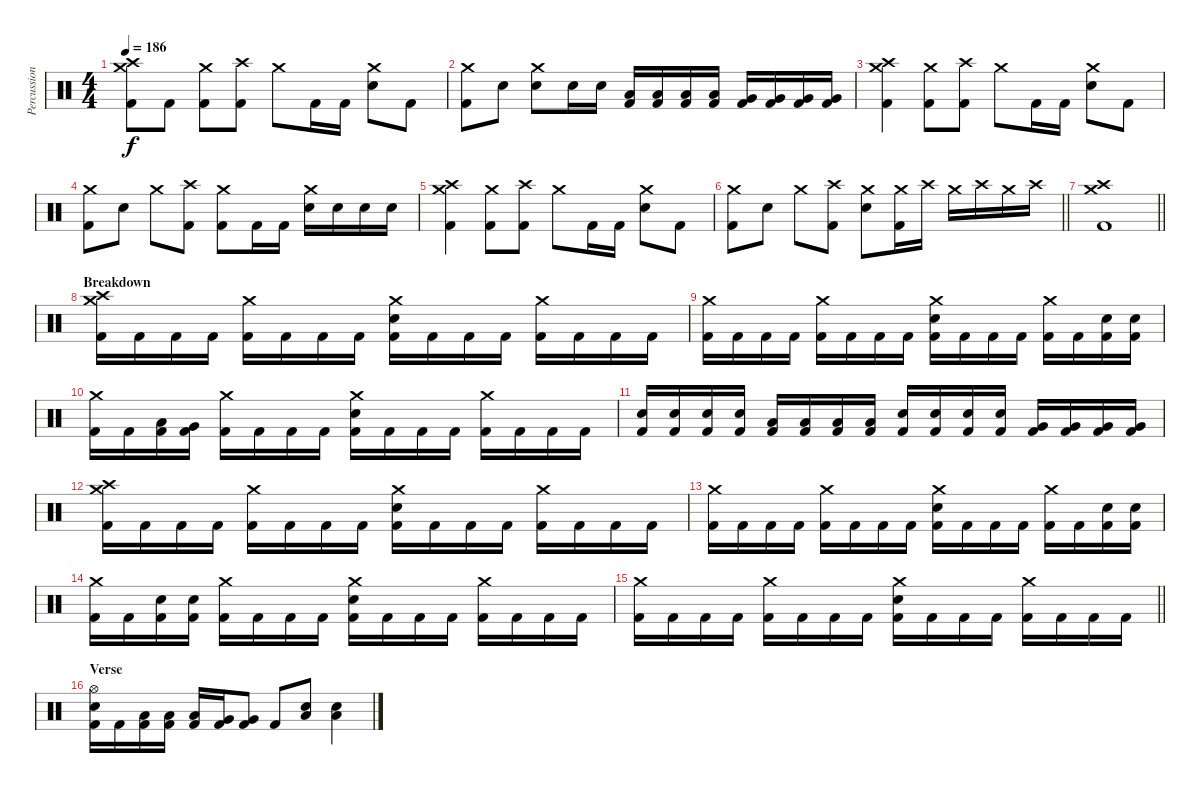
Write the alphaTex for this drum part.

\track ("Percussion" "Percussion") {instrument percussion}
\staff {score}
\articulation defaults
\ts (4 4)
\tempo 186
\clef neutral
\ks c
("Crash medium (hit)" "Crash high (hit)" "Kick (hit) 2").8{dy f} "Kick (hit) 2".8 ("Crash medium (hit)" "Kick (hit) 2").8 ("Crash high (hit)" "Kick (hit) 2").8 "Crash medium (hit)".8 "Kick (hit) 2".16 "Kick (hit) 2".16 ("Crash medium (hit)" "Electric Snare (hit)").8 "Kick (hit) 2".8 |
("Crash medium (hit)" "Kick (hit) 2").8 "Electric Snare (hit)".8 ("Crash medium (hit)" "Electric Snare (hit)").8 "Electric Snare (hit)".16 "Electric Snare (hit)".16 ("Low Tom (hit)" "Kick (hit) 2").16 ("Low Tom (hit)" "Kick (hit) 2").16 ("Low Tom (hit)" "Kick (hit) 2").16 ("Low Tom (hit)" "Kick (hit) 2").16 ("Very Low Tom (hit)" "Kick (hit) 2").16 ("Very Low Tom (hit)" "Kick (hit) 2").16 ("Very Low Tom (hit)" "Kick (hit) 2").16 ("Very Low Tom (hit)" "Kick (hit) 2").16 |
("Crash medium (hit)" "Crash high (hit)" "Kick (hit) 2").4 ("Crash medium (hit)" "Kick (hit) 2").8 ("Crash high (hit)" "Kick (hit) 2").8 "Crash medium (hit)".8 "Kick (hit) 2".16 "Kick (hit) 2".16 ("Crash medium (hit)" "Electric Snare (hit)").8 "Kick (hit) 2".8 |
("Crash medium (hit)" "Kick (hit) 2").8 "Electric Snare (hit)".8 "Crash medium (hit)".8 ("Crash high (hit)" "Kick (hit) 2").8 ("Crash medium (hit)" "Kick (hit) 2").8 "Kick (hit) 2".16 "Kick (hit) 2".16 ("Crash medium (hit)" "Electric Snare (hit)").16 "Electric Snare (hit)".16 "Electric Snare (hit)".16 "Electric Snare (hit)".16 |
("Crash medium (hit)" "Crash high (hit)" "Kick (hit) 2").4 ("Crash medium (hit)" "Kick (hit) 2").8 ("Crash high (hit)" "Kick (hit) 2").8 "Crash medium (hit)".8 "Kick (hit) 2".16 "Kick (hit) 2".16 ("Crash medium (hit)" "Electric Snare (hit)").8 "Kick (hit) 2".8 |
\barLineRight lightlight
("Crash medium (hit)" "Kick (hit) 2").8 "Electric Snare (hit)".8 "Crash medium (hit)".8 ("Crash high (hit)" "Kick (hit) 2").8 ("Crash medium (hit)" "Electric Snare (hit)").8 ("Crash medium (hit)" "Kick (hit) 2").16 "Crash high (hit)".16 "Crash medium (hit)".16 "Crash high (hit)".16 "Crash medium (hit)".16 "Crash high (hit)".16 |
\barLineRight lightlight
("Crash medium (hit)" "Crash high (hit)" "Kick (hit) 2").1 |
\section ("" "Breakdown")
("Crash medium (hit)" "Crash high (hit)" "Kick (hit) 2").16 "Kick (hit) 2".16 "Kick (hit) 2".16 "Kick (hit) 2".16 ("Crash medium (hit)" "Kick (hit) 2").16 "Kick (hit) 2".16 "Kick (hit) 2".16 "Kick (hit) 2".16 ("Crash medium (hit)" "Electric Snare (hit)" "Kick (hit) 2").16 "Kick (hit) 2".16 "Kick (hit) 2".16 "Kick (hit) 2".16 ("Crash medium (hit)" "Kick (hit) 2").16 "Kick (hit) 2".16 "Kick (hit) 2".16 "Kick (hit) 2".16 |
("Crash medium (hit)" "Kick (hit) 2").16 "Kick (hit) 2".16 "Kick (hit) 2".16 "Kick (hit) 2".16 ("Crash medium (hit)" "Kick (hit) 2").16 "Kick (hit) 2".16 "Kick (hit) 2".16 "Kick (hit) 2".16 ("Crash medium (hit)" "Electric Snare (hit)" "Kick (hit) 2").16 "Kick (hit) 2".16 "Kick (hit) 2".16 "Kick (hit) 2".16 ("Crash medium (hit)" "Kick (hit) 2").16 "Kick (hit) 2".16 ("Electric Snare (hit)" "Kick (hit) 2").16 ("Electric Snare (hit)" "Kick (hit) 2").16 |
("Crash medium (hit)" "Kick (hit) 2").16 "Kick (hit) 2".16 ("Low Tom (hit)" "Kick (hit) 2").16 ("Very Low Tom (hit)" "Kick (hit) 2").16 ("Crash medium (hit)" "Kick (hit) 2").16 "Kick (hit) 2".16 "Kick (hit) 2".16 "Kick (hit) 2".16 ("Crash medium (hit)" "Electric Snare (hit)" "Kick (hit) 2").16 "Kick (hit) 2".16 "Kick (hit) 2".16 "Kick (hit) 2".16 ("Crash medium (hit)" "Kick (hit) 2").16 "Kick (hit) 2".16 "Kick (hit) 2".16 "Kick (hit) 2".16 |
("Electric Snare (hit)" "Kick (hit) 2").16 ("Electric Snare (hit)" "Kick (hit) 2").16 ("Electric Snare (hit)" "Kick (hit) 2").16 ("Electric Snare (hit)" "Kick (hit) 2").16 ("Low Tom (hit)" "Kick (hit) 2").16 ("Low Tom (hit)" "Kick (hit) 2").16 ("Low Tom (hit)" "Kick (hit) 2").16 ("Low Tom (hit)" "Kick (hit) 2").16 ("Electric Snare (hit)" "Kick (hit) 2").16 ("Electric Snare (hit)" "Kick (hit) 2").16 ("Electric Snare (hit)" "Kick (hit) 2").16 ("Electric Snare (hit)" "Kick (hit) 2").16 ("Very Low Tom (hit)" "Kick (hit) 2").16 ("Very Low Tom (hit)" "Kick (hit) 2").16 ("Very Low Tom (hit)" "Kick (hit) 2").16 ("Very Low Tom (hit)" "Kick (hit) 2").16 |
("Crash medium (hit)" "Crash high (hit)" "Kick (hit) 2").16 "Kick (hit) 2".16 "Kick (hit) 2".16 "Kick (hit) 2".16 ("Crash medium (hit)" "Kick (hit) 2").16 "Kick (hit) 2".16 "Kick (hit) 2".16 "Kick (hit) 2".16 ("Crash medium (hit)" "Electric Snare (hit)" "Kick (hit) 2").16 "Kick (hit) 2".16 "Kick (hit) 2".16 "Kick (hit) 2".16 ("Crash medium (hit)" "Kick (hit) 2").16 "Kick (hit) 2".16 "Kick (hit) 2".16 "Kick (hit) 2".16 |
("Crash medium (hit)" "Kick (hit) 2").16 "Kick (hit) 2".16 "Kick (hit) 2".16 "Kick (hit) 2".16 ("Crash medium (hit)" "Kick (hit) 2").16 "Kick (hit) 2".16 "Kick (hit) 2".16 "Kick (hit) 2".16 ("Crash medium (hit)" "Electric Snare (hit)" "Kick (hit) 2").16 "Kick (hit) 2".16 "Kick (hit) 2".16 "Kick (hit) 2".16 ("Crash medium (hit)" "Kick (hit) 2").16 "Kick (hit) 2".16 ("Electric Snare (hit)" "Kick (hit) 2").16 ("Electric Snare (hit)" "Kick (hit) 2").16 |
("Crash medium (hit)" "Kick (hit) 2").16 "Kick (hit) 2".16 ("Electric Snare (hit)" "Kick (hit) 2").16 ("Electric Snare (hit)" "Kick (hit) 2").16 ("Crash medium (hit)" "Kick (hit) 2").16 "Kick (hit) 2".16 "Kick (hit) 2".16 "Kick (hit) 2".16 ("Crash medium (hit)" "Electric Snare (hit)" "Kick (hit) 2").16 "Kick (hit) 2".16 "Kick (hit) 2".16 "Kick (hit) 2".16 ("Crash medium (hit)" "Kick (hit) 2").16 "Kick (hit) 2".16 "Kick (hit) 2".16 "Kick (hit) 2".16 |
\barLineRight lightlight
("Crash medium (hit)" "Kick (hit) 2").16 "Kick (hit) 2".16 "Kick (hit) 2".16 "Kick (hit) 2".16 ("Crash medium (hit)" "Kick (hit) 2").16 "Kick (hit) 2".16 "Kick (hit) 2".16 "Kick (hit) 2".16 ("Crash medium (hit)" "Electric Snare (hit)" "Kick (hit) 2").16 "Kick (hit) 2".16 "Kick (hit) 2".16 "Kick (hit) 2".16 ("Crash medium (hit)" "Kick (hit) 2").16 "Kick (hit) 2".16 "Kick (hit) 2".16 "Kick (hit) 2".16 |
\section ("" "Verse")
("Hi-Hat (open)" "Electric Snare (hit)" "Kick (hit) 2").16 "Kick (hit) 2".16 ("Low Tom (hit)" "Kick (hit) 2").16 ("Low Tom (hit)" "Kick (hit) 2").16 ("Low Tom (hit)" "Kick (hit) 2").16 ("Very Low Tom (hit)" "Kick (hit) 2").16 ("Very Low Tom (hit)" "Kick (hit) 2").8 "Kick (hit) 2".8 ("Electric Snare (hit)" "Low Floor Tom (hit)").8 ("Electric Snare (hit)" "Low Floor Tom (hit)").4
